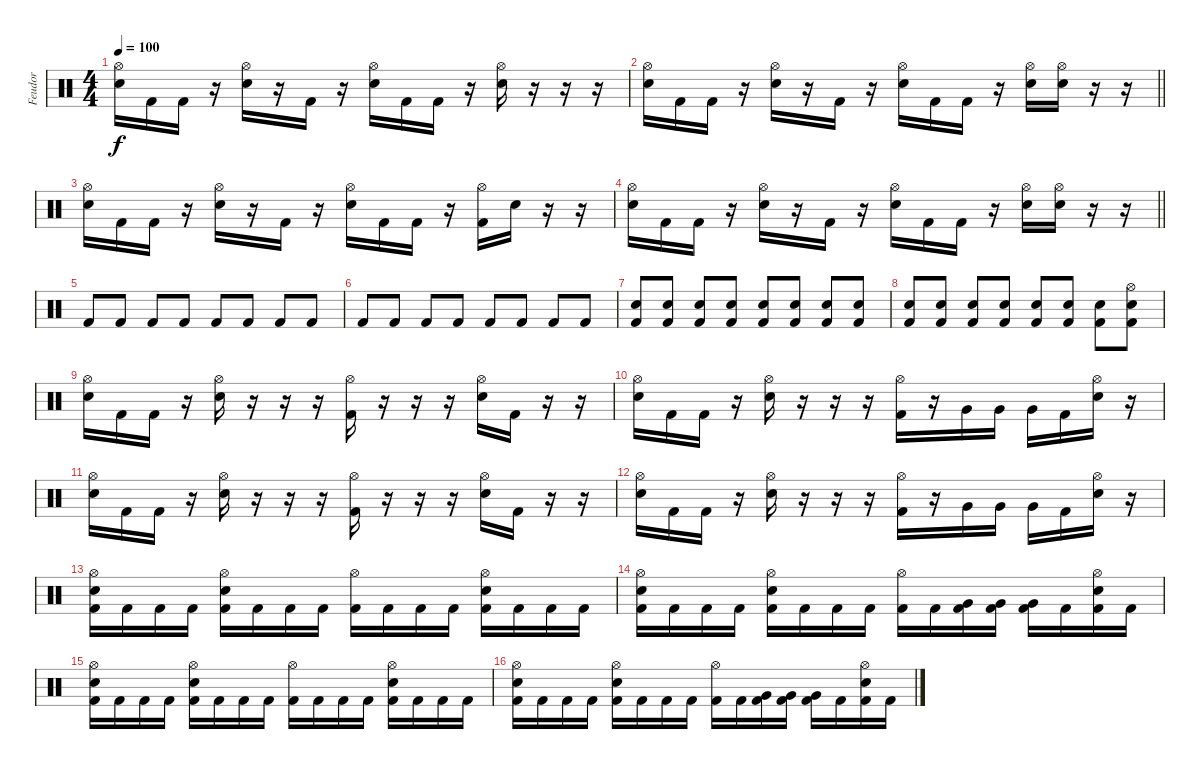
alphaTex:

\track ("Feudor" "Feudor") {instrument percussion}
\staff {score}
\articulation defaults
\ts (4 4)
\tempo 100
\clef neutral
\ks c
("Hi-Hat (open)" "Electric Snare (hit)").16{dy f} "Kick (hit) 2".16 "Kick (hit) 2".16 r.16 ("Hi-Hat (open)" "Electric Snare (hit)").16 r.16 "Kick (hit) 2".16 r.16 ("Hi-Hat (open)" "Electric Snare (hit)").16 "Kick (hit) 2".16 "Kick (hit) 2".16 r.16 ("Hi-Hat (open)" "Electric Snare (hit)").16 r.16 r.16 r.16 |
\barLineRight lightlight
("Hi-Hat (open)" "Electric Snare (hit)").16 "Kick (hit) 2".16 "Kick (hit) 2".16 r.16 ("Hi-Hat (open)" "Electric Snare (hit)").16 r.16 "Kick (hit) 2".16 r.16 ("Hi-Hat (open)" "Electric Snare (hit)").16 "Kick (hit) 2".16 "Kick (hit) 2".16 r.16 ("Hi-Hat (open)" "Electric Snare (hit)").16 ("Hi-Hat (open)" "Electric Snare (hit)").16 r.16 r.16 |
("Hi-Hat (open)" "Electric Snare (hit)").16 "Kick (hit) 2".16 "Kick (hit) 2".16 r.16 ("Hi-Hat (open)" "Electric Snare (hit)").16 r.16 "Kick (hit) 2".16 r.16 ("Hi-Hat (open)" "Electric Snare (hit)").16 "Kick (hit) 2".16 "Kick (hit) 2".16 r.16 ("Hi-Hat (open)" "Kick (hit) 2").16 "Electric Snare (hit)".16 r.16 r.16 |
\barLineRight lightlight
("Hi-Hat (open)" "Electric Snare (hit)").16 "Kick (hit) 2".16 "Kick (hit) 2".16 r.16 ("Hi-Hat (open)" "Electric Snare (hit)").16 r.16 "Kick (hit) 2".16 r.16 ("Hi-Hat (open)" "Electric Snare (hit)").16 "Kick (hit) 2".16 "Kick (hit) 2".16 r.16 ("Hi-Hat (open)" "Electric Snare (hit)").16 ("Hi-Hat (open)" "Electric Snare (hit)").16 r.16 r.16 |
"Kick (hit) 2".8{volume 0} "Kick (hit) 2".8{volume 16} "Kick (hit) 2".8 "Kick (hit) 2".8 "Kick (hit) 2".8 "Kick (hit) 2".8 "Kick (hit) 2".8 "Kick (hit) 2".8 |
"Kick (hit) 2".8 "Kick (hit) 2".8 "Kick (hit) 2".8 "Kick (hit) 2".8 "Kick (hit) 2".8 "Kick (hit) 2".8 "Kick (hit) 2".8 "Kick (hit) 2".8 |
("Electric Snare (hit)" "Kick (hit) 2").8 ("Electric Snare (hit)" "Kick (hit) 2").8 ("Electric Snare (hit)" "Kick (hit) 2").8 ("Electric Snare (hit)" "Kick (hit) 2").8 ("Electric Snare (hit)" "Kick (hit) 2").8 ("Electric Snare (hit)" "Kick (hit) 2").8 ("Electric Snare (hit)" "Kick (hit) 2").8 ("Electric Snare (hit)" "Kick (hit) 2").8 |
("Electric Snare (hit)" "Kick (hit) 2").8 ("Electric Snare (hit)" "Kick (hit) 2").8 ("Electric Snare (hit)" "Kick (hit) 2").8 ("Electric Snare (hit)" "Kick (hit) 2").8 ("Electric Snare (hit)" "Kick (hit) 2").8 ("Electric Snare (hit)" "Kick (hit) 2").8 ("Electric Snare (hit)" "Kick (hit) 2").8 ("Hi-Hat (open)" "Electric Snare (hit)" "Kick (hit) 2").8 |
("Hi-Hat (open)" "Electric Snare (hit)").16 "Kick (hit) 2".16 "Kick (hit) 2".16 r.16 ("Hi-Hat (open)" "Electric Snare (hit)").16 r.16 r.16 r.16 ("Hi-Hat (open)" "Kick (hit) 2").16 r.16 r.16 r.16 ("Hi-Hat (open)" "Electric Snare (hit)").16 "Kick (hit) 2".16 r.16 r.16 |
("Hi-Hat (open)" "Electric Snare (hit)").16 "Kick (hit) 2".16 "Kick (hit) 2".16 r.16 ("Hi-Hat (open)" "Electric Snare (hit)").16 r.16 r.16 r.16 ("Hi-Hat (open)" "Kick (hit) 2").16 r.16 "Very Low Tom (hit)".16 "Very Low Tom (hit)".16 "Very Low Tom (hit)".16 "Kick (hit) 2".16 ("Hi-Hat (open)" "Electric Snare (hit)").16 r.16 |
("Hi-Hat (open)" "Electric Snare (hit)").16 "Kick (hit) 2".16 "Kick (hit) 2".16 r.16 ("Hi-Hat (open)" "Electric Snare (hit)").16 r.16 r.16 r.16 ("Hi-Hat (open)" "Kick (hit) 2").16 r.16 r.16 r.16 ("Hi-Hat (open)" "Electric Snare (hit)").16 "Kick (hit) 2".16 r.16 r.16 |
("Hi-Hat (open)" "Electric Snare (hit)").16 "Kick (hit) 2".16 "Kick (hit) 2".16 r.16 ("Hi-Hat (open)" "Electric Snare (hit)").16 r.16 r.16 r.16 ("Hi-Hat (open)" "Kick (hit) 2").16 r.16 "Very Low Tom (hit)".16 "Very Low Tom (hit)".16 "Very Low Tom (hit)".16 "Kick (hit) 2".16 ("Hi-Hat (open)" "Electric Snare (hit)").16 r.16 |
("Hi-Hat (open)" "Electric Snare (hit)" "Kick (hit) 2").16 "Kick (hit) 2".16 "Kick (hit) 2".16 "Kick (hit) 2".16 ("Hi-Hat (open)" "Electric Snare (hit)" "Kick (hit) 2").16 "Kick (hit) 2".16 "Kick (hit) 2".16 "Kick (hit) 2".16 ("Hi-Hat (open)" "Kick (hit) 2").16 "Kick (hit) 2".16 "Kick (hit) 2".16 "Kick (hit) 2".16 ("Hi-Hat (open)" "Electric Snare (hit)" "Kick (hit) 2").16 "Kick (hit) 2".16 "Kick (hit) 2".16 "Kick (hit) 2".16 |
("Hi-Hat (open)" "Electric Snare (hit)" "Kick (hit) 2").16 "Kick (hit) 2".16 "Kick (hit) 2".16 "Kick (hit) 2".16 ("Hi-Hat (open)" "Electric Snare (hit)" "Kick (hit) 2").16 "Kick (hit) 2".16 "Kick (hit) 2".16 "Kick (hit) 2".16 ("Hi-Hat (open)" "Kick (hit) 2").16 "Kick (hit) 2".16 ("Very Low Tom (hit)" "Kick (hit) 2").16 ("Very Low Tom (hit)" "Kick (hit) 2").16 ("Very Low Tom (hit)" "Kick (hit) 2").16 "Kick (hit) 2".16 ("Hi-Hat (open)" "Electric Snare (hit)" "Kick (hit) 2").16 "Kick (hit) 2".16 |
("Hi-Hat (open)" "Electric Snare (hit)" "Kick (hit) 2").16 "Kick (hit) 2".16 "Kick (hit) 2".16 "Kick (hit) 2".16 ("Hi-Hat (open)" "Electric Snare (hit)" "Kick (hit) 2").16 "Kick (hit) 2".16 "Kick (hit) 2".16 "Kick (hit) 2".16 ("Hi-Hat (open)" "Kick (hit) 2").16 "Kick (hit) 2".16 "Kick (hit) 2".16 "Kick (hit) 2".16 ("Hi-Hat (open)" "Electric Snare (hit)" "Kick (hit) 2").16 "Kick (hit) 2".16 "Kick (hit) 2".16 "Kick (hit) 2".16 |
("Hi-Hat (open)" "Electric Snare (hit)" "Kick (hit) 2").16 "Kick (hit) 2".16 "Kick (hit) 2".16 "Kick (hit) 2".16 ("Hi-Hat (open)" "Electric Snare (hit)" "Kick (hit) 2").16 "Kick (hit) 2".16 "Kick (hit) 2".16 "Kick (hit) 2".16 ("Hi-Hat (open)" "Kick (hit) 2").16 "Kick (hit) 2".16 ("Very Low Tom (hit)" "Kick (hit) 2").16 ("Very Low Tom (hit)" "Kick (hit) 2").16 ("Very Low Tom (hit)" "Kick (hit) 2").16 "Kick (hit) 2".16 ("Hi-Hat (open)" "Electric Snare (hit)" "Kick (hit) 2").16 "Kick (hit) 2".16
